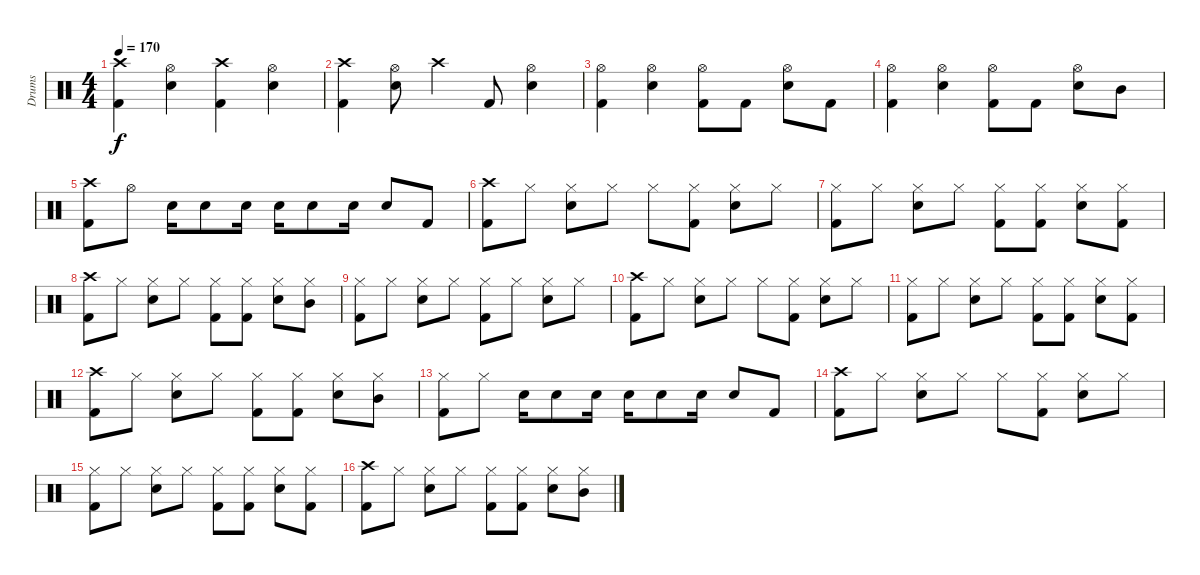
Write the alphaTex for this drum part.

\track ("Drums" "Drums") {instrument percussion}
\staff {score}
\articulation defaults
\ts (4 4)
\tempo 170
\clef neutral
\ks c
("Crash high (hit)" "Kick (hit) 2").4{dy f} ("Hi-Hat (open)" "Snare (hit) 2").4 ("Crash high (hit)" "Kick (hit) 2").4 ("Hi-Hat (open)" "Snare (hit) 2").4 |
("Crash high (hit)" "Kick (hit) 2").4 ("Hi-Hat (open)" "Snare (hit) 2").8 "Crash high (hit)".4 "Kick (hit) 2".8 ("Hi-Hat (open)" "Snare (hit) 2").4 |
("Hi-Hat (open)" "Kick (hit) 2").4 ("Hi-Hat (open)" "Snare (hit) 2").4 ("Hi-Hat (open)" "Kick (hit) 2").8 "Kick (hit) 2".8 ("Hi-Hat (open)" "Snare (hit) 2").8 "Kick (hit) 2".8 |
("Hi-Hat (open)" "Kick (hit) 2").4 ("Hi-Hat (open)" "Snare (hit) 2").4 ("Hi-Hat (open)" "Kick (hit) 2").8 "Kick (hit) 2".8 ("Hi-Hat (open)" "Snare (hit) 2").8 "Mid Tom (hit)".8 |
("Crash high (hit)" "Kick (hit) 2").8 "Hi-Hat (open)".8 "Snare (hit) 2".16 "Snare (hit) 2".8 "Snare (hit) 2".16 "Snare (hit) 2".16 "Snare (hit) 2".8 "Snare (hit) 2".16 "Snare (hit) 2".8 "Kick (hit) 2".8 |
("Crash high (hit)" "Kick (hit) 2").8 "Hi-Hat (closed)".8 ("Hi-Hat (closed)" "Snare (hit) 2").8 "Hi-Hat (closed)".8 "Hi-Hat (closed)".8 ("Hi-Hat (closed)" "Kick (hit) 2").8 ("Hi-Hat (closed)" "Snare (hit) 2").8 "Hi-Hat (closed)".8 |
("Hi-Hat (closed)" "Kick (hit) 2").8 "Hi-Hat (closed)".8 ("Hi-Hat (closed)" "Snare (hit) 2").8 "Hi-Hat (closed)".8 ("Hi-Hat (closed)" "Kick (hit) 2").8 ("Hi-Hat (closed)" "Kick (hit) 2").8 ("Hi-Hat (closed)" "Snare (hit) 2").8 ("Hi-Hat (closed)" "Kick (hit) 2").8 |
("Crash high (hit)" "Kick (hit) 2").8 "Hi-Hat (closed)".8 ("Hi-Hat (closed)" "Snare (hit) 2").8 "Hi-Hat (closed)".8 ("Hi-Hat (closed)" "Kick (hit) 2").8 ("Hi-Hat (closed)" "Kick (hit) 2").8 ("Hi-Hat (closed)" "Snare (hit) 2").8 ("Hi-Hat (closed)" "Mid Tom (hit)").8 |
("Hi-Hat (closed)" "Kick (hit) 2").8 "Hi-Hat (closed)".8 ("Hi-Hat (closed)" "Snare (hit) 2").8 "Hi-Hat (closed)".8 ("Hi-Hat (closed)" "Kick (hit) 2").8 "Hi-Hat (closed)".8 ("Hi-Hat (closed)" "Snare (hit) 2").8 "Hi-Hat (closed)".8 |
("Crash high (hit)" "Kick (hit) 2").8 "Hi-Hat (closed)".8 ("Hi-Hat (closed)" "Snare (hit) 2").8 "Hi-Hat (closed)".8 "Hi-Hat (closed)".8 ("Hi-Hat (closed)" "Kick (hit) 2").8 ("Hi-Hat (closed)" "Snare (hit) 2").8 "Hi-Hat (closed)".8 |
("Hi-Hat (closed)" "Kick (hit) 2").8 "Hi-Hat (closed)".8 ("Hi-Hat (closed)" "Snare (hit) 2").8 "Hi-Hat (closed)".8 ("Hi-Hat (closed)" "Kick (hit) 2").8 ("Hi-Hat (closed)" "Kick (hit) 2").8 ("Hi-Hat (closed)" "Snare (hit) 2").8 ("Hi-Hat (closed)" "Kick (hit) 2").8 |
("Crash high (hit)" "Kick (hit) 2").8 "Hi-Hat (closed)".8 ("Hi-Hat (closed)" "Snare (hit) 2").8 "Hi-Hat (closed)".8 ("Hi-Hat (closed)" "Kick (hit) 2").8 ("Hi-Hat (closed)" "Kick (hit) 2").8 ("Hi-Hat (closed)" "Snare (hit) 2").8 ("Hi-Hat (closed)" "Mid Tom (hit)").8 |
("Hi-Hat (closed)" "Kick (hit) 2").8 "Hi-Hat (closed)".8 "Snare (hit) 2".16 "Snare (hit) 2".8 "Snare (hit) 2".16 "Snare (hit) 2".16 "Snare (hit) 2".8 "Snare (hit) 2".16 "Snare (hit) 2".8 "Kick (hit) 2".8 |
("Crash high (hit)" "Kick (hit) 2").8 "Hi-Hat (closed)".8 ("Hi-Hat (closed)" "Snare (hit) 2").8 "Hi-Hat (closed)".8 "Hi-Hat (closed)".8 ("Hi-Hat (closed)" "Kick (hit) 2").8 ("Hi-Hat (closed)" "Snare (hit) 2").8 "Hi-Hat (closed)".8 |
("Hi-Hat (closed)" "Kick (hit) 2").8 "Hi-Hat (closed)".8 ("Hi-Hat (closed)" "Snare (hit) 2").8 "Hi-Hat (closed)".8 ("Hi-Hat (closed)" "Kick (hit) 2").8 ("Hi-Hat (closed)" "Kick (hit) 2").8 ("Hi-Hat (closed)" "Snare (hit) 2").8 ("Hi-Hat (closed)" "Kick (hit) 2").8 |
("Crash high (hit)" "Kick (hit) 2").8 "Hi-Hat (closed)".8 ("Hi-Hat (closed)" "Snare (hit) 2").8 "Hi-Hat (closed)".8 ("Hi-Hat (closed)" "Kick (hit) 2").8 ("Hi-Hat (closed)" "Kick (hit) 2").8 ("Hi-Hat (closed)" "Snare (hit) 2").8 ("Hi-Hat (closed)" "Mid Tom (hit)").8
